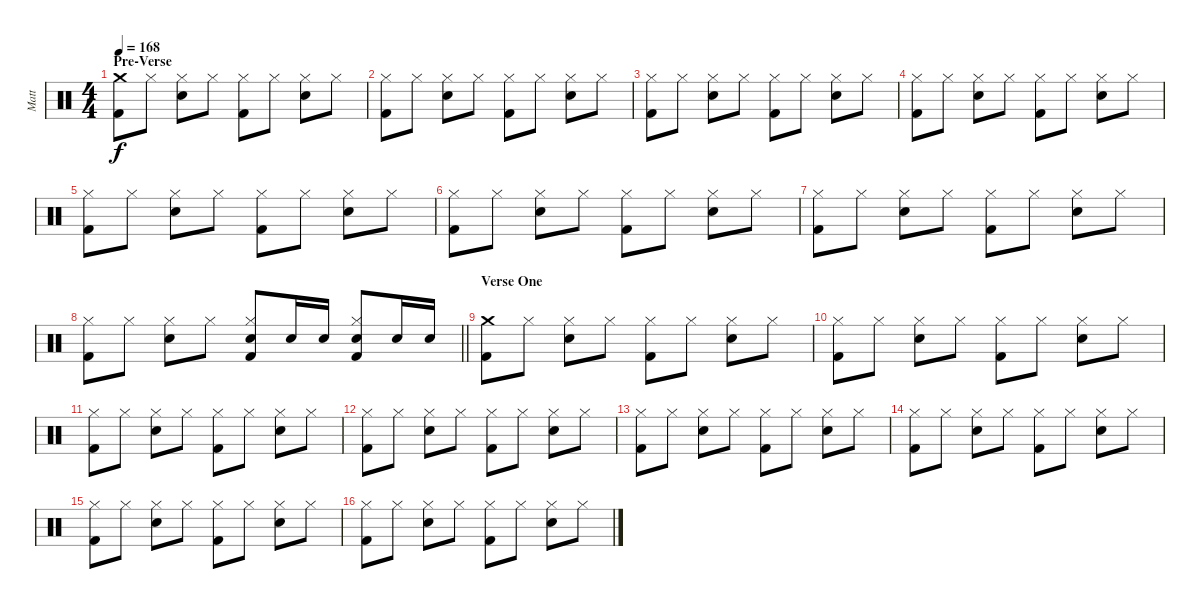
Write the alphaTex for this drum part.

\track ("Matt" "Matt") {instrument percussion}
\staff {score}
\articulation defaults
\ts (4 4)
\section ("" "Pre-Verse")
\tempo 168
\clef neutral
\ks c
("Crash medium (hit)" "Kick (hit) 2").8{dy f} "Hi-Hat (closed)".8 ("Hi-Hat (closed)" "Electric Snare (hit)").8 "Hi-Hat (closed)".8 ("Hi-Hat (closed)" "Kick (hit) 2").8 "Hi-Hat (closed)".8 ("Hi-Hat (closed)" "Electric Snare (hit)").8 "Hi-Hat (closed)".8 |
("Hi-Hat (closed)" "Kick (hit) 2").8 "Hi-Hat (closed)".8 ("Hi-Hat (closed)" "Electric Snare (hit)").8 "Hi-Hat (closed)".8 ("Hi-Hat (closed)" "Kick (hit) 2").8 "Hi-Hat (closed)".8 ("Hi-Hat (closed)" "Electric Snare (hit)").8 "Hi-Hat (closed)".8 |
("Hi-Hat (closed)" "Kick (hit) 2").8 "Hi-Hat (closed)".8 ("Hi-Hat (closed)" "Electric Snare (hit)").8 "Hi-Hat (closed)".8 ("Hi-Hat (closed)" "Kick (hit) 2").8 "Hi-Hat (closed)".8 ("Hi-Hat (closed)" "Electric Snare (hit)").8 "Hi-Hat (closed)".8 |
("Hi-Hat (closed)" "Kick (hit) 2").8 "Hi-Hat (closed)".8 ("Hi-Hat (closed)" "Electric Snare (hit)").8 "Hi-Hat (closed)".8 ("Hi-Hat (closed)" "Kick (hit) 2").8 "Hi-Hat (closed)".8 ("Hi-Hat (closed)" "Electric Snare (hit)").8 "Hi-Hat (closed)".8 |
("Hi-Hat (closed)" "Kick (hit) 2").8 "Hi-Hat (closed)".8 ("Hi-Hat (closed)" "Electric Snare (hit)").8 "Hi-Hat (closed)".8 ("Hi-Hat (closed)" "Kick (hit) 2").8 "Hi-Hat (closed)".8 ("Hi-Hat (closed)" "Electric Snare (hit)").8 "Hi-Hat (closed)".8 |
("Hi-Hat (closed)" "Kick (hit) 2").8 "Hi-Hat (closed)".8 ("Hi-Hat (closed)" "Electric Snare (hit)").8 "Hi-Hat (closed)".8 ("Hi-Hat (closed)" "Kick (hit) 2").8 "Hi-Hat (closed)".8 ("Hi-Hat (closed)" "Electric Snare (hit)").8 "Hi-Hat (closed)".8 |
("Hi-Hat (closed)" "Kick (hit) 2").8 "Hi-Hat (closed)".8 ("Hi-Hat (closed)" "Electric Snare (hit)").8 "Hi-Hat (closed)".8 ("Hi-Hat (closed)" "Kick (hit) 2").8 "Hi-Hat (closed)".8 ("Hi-Hat (closed)" "Electric Snare (hit)").8 "Hi-Hat (closed)".8 |
\barLineRight lightlight
("Hi-Hat (closed)" "Kick (hit) 2").8 "Hi-Hat (closed)".8 ("Hi-Hat (closed)" "Electric Snare (hit)").8 "Hi-Hat (closed)".8 ("Hi-Hat (closed)" "Electric Snare (hit)" "Kick (hit) 2").8 "Electric Snare (hit)".16 "Electric Snare (hit)".16 ("Hi-Hat (closed)" "Electric Snare (hit)" "Kick (hit) 2").8 "Electric Snare (hit)".16 "Electric Snare (hit)".16 |
\section ("" "Verse One")
("Crash medium (hit)" "Kick (hit) 2").8 "Hi-Hat (closed)".8 ("Hi-Hat (closed)" "Electric Snare (hit)").8 "Hi-Hat (closed)".8 ("Hi-Hat (closed)" "Kick (hit) 2").8 "Hi-Hat (closed)".8 ("Hi-Hat (closed)" "Electric Snare (hit)").8 "Hi-Hat (closed)".8 |
("Hi-Hat (closed)" "Kick (hit) 2").8 "Hi-Hat (closed)".8 ("Hi-Hat (closed)" "Electric Snare (hit)").8 "Hi-Hat (closed)".8 ("Hi-Hat (closed)" "Kick (hit) 2").8 "Hi-Hat (closed)".8 ("Hi-Hat (closed)" "Electric Snare (hit)").8 "Hi-Hat (closed)".8 |
("Hi-Hat (closed)" "Kick (hit) 2").8 "Hi-Hat (closed)".8 ("Hi-Hat (closed)" "Electric Snare (hit)").8 "Hi-Hat (closed)".8 ("Hi-Hat (closed)" "Kick (hit) 2").8 "Hi-Hat (closed)".8 ("Hi-Hat (closed)" "Electric Snare (hit)").8 "Hi-Hat (closed)".8 |
("Hi-Hat (closed)" "Kick (hit) 2").8 "Hi-Hat (closed)".8 ("Hi-Hat (closed)" "Electric Snare (hit)").8 "Hi-Hat (closed)".8 ("Hi-Hat (closed)" "Kick (hit) 2").8 "Hi-Hat (closed)".8 ("Hi-Hat (closed)" "Electric Snare (hit)").8 "Hi-Hat (closed)".8 |
("Hi-Hat (closed)" "Kick (hit) 2").8 "Hi-Hat (closed)".8 ("Hi-Hat (closed)" "Electric Snare (hit)").8 "Hi-Hat (closed)".8 ("Hi-Hat (closed)" "Kick (hit) 2").8 "Hi-Hat (closed)".8 ("Hi-Hat (closed)" "Electric Snare (hit)").8 "Hi-Hat (closed)".8 |
("Hi-Hat (closed)" "Kick (hit) 2").8 "Hi-Hat (closed)".8 ("Hi-Hat (closed)" "Electric Snare (hit)").8 "Hi-Hat (closed)".8 ("Hi-Hat (closed)" "Kick (hit) 2").8 "Hi-Hat (closed)".8 ("Hi-Hat (closed)" "Electric Snare (hit)").8 "Hi-Hat (closed)".8 |
("Hi-Hat (closed)" "Kick (hit) 2").8 "Hi-Hat (closed)".8 ("Hi-Hat (closed)" "Electric Snare (hit)").8 "Hi-Hat (closed)".8 ("Hi-Hat (closed)" "Kick (hit) 2").8 "Hi-Hat (closed)".8 ("Hi-Hat (closed)" "Electric Snare (hit)").8 "Hi-Hat (closed)".8 |
("Hi-Hat (closed)" "Kick (hit) 2").8 "Hi-Hat (closed)".8 ("Hi-Hat (closed)" "Electric Snare (hit)").8 "Hi-Hat (closed)".8 ("Hi-Hat (closed)" "Kick (hit) 2").8 "Hi-Hat (closed)".8 ("Hi-Hat (closed)" "Electric Snare (hit)").8 "Hi-Hat (closed)".8
